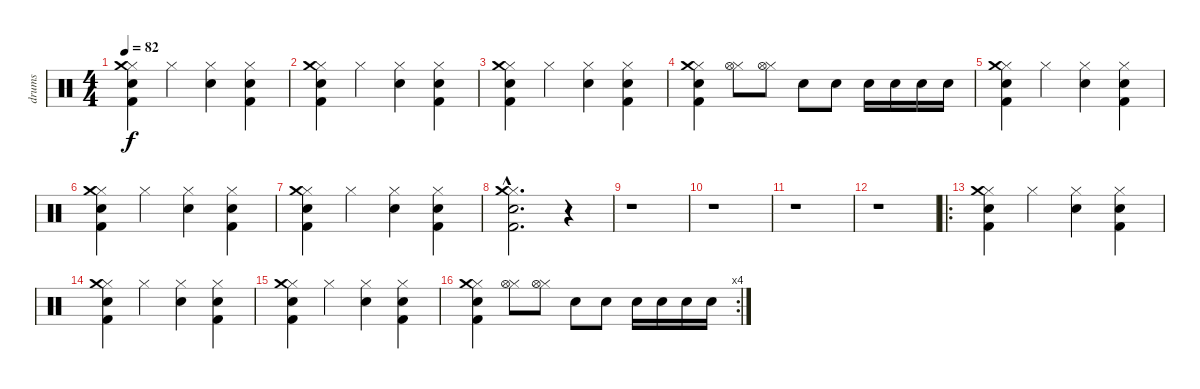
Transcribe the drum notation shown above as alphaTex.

\track ("drums" "drums") {instrument percussion}
\staff {score}
\articulation defaults
\ts (4 4)
\tempo 82
\clef neutral
\ks c
("Hi-Hat (closed)" "Snare (hit) 2" "Kick (hit) 2" "Crash medium (hit)").4{dy f} "Hi-Hat (closed)".4 ("Hi-Hat (closed)" "Hand Clap (hit)").4 ("Hi-Hat (closed)" "Snare (hit) 2" "Kick (hit) 2").4 |
("Hi-Hat (closed)" "Snare (hit) 2" "Kick (hit) 2" "Crash medium (hit)").4 "Hi-Hat (closed)".4 ("Hi-Hat (closed)" "Hand Clap (hit)").4 ("Hi-Hat (closed)" "Snare (hit) 2" "Kick (hit) 2").4 |
("Hi-Hat (closed)" "Snare (hit) 2" "Kick (hit) 2" "Crash medium (hit)").4 "Hi-Hat (closed)".4 ("Hi-Hat (closed)" "Hand Clap (hit)").4 ("Hi-Hat (closed)" "Snare (hit) 2" "Kick (hit) 2").4 |
("Hi-Hat (closed)" "Snare (hit) 2" "Kick (hit) 2" "Crash medium (hit)").4 ("Hi-Hat (closed)" "Hi-Hat (open)").8 ("Hi-Hat (closed)" "Hi-Hat (open)").8 "Electric Snare (hit)".8 "Electric Snare (hit)".8 "Snare (hit) 2".16 "Snare (hit) 2".16 "Snare (hit) 2".16 "Snare (hit) 2".16 |
("Hi-Hat (closed)" "Snare (hit) 2" "Kick (hit) 2" "Crash medium (hit)").4 "Hi-Hat (closed)".4 ("Hi-Hat (closed)" "Hand Clap (hit)").4 ("Hi-Hat (closed)" "Snare (hit) 2" "Kick (hit) 2").4 |
("Hi-Hat (closed)" "Snare (hit) 2" "Kick (hit) 2" "Crash medium (hit)").4 "Hi-Hat (closed)".4 ("Hi-Hat (closed)" "Hand Clap (hit)").4 ("Hi-Hat (closed)" "Snare (hit) 2" "Kick (hit) 2").4 |
("Hi-Hat (closed)" "Snare (hit) 2" "Kick (hit) 2" "Crash medium (hit)").4 "Hi-Hat (closed)".4 ("Hi-Hat (closed)" "Hand Clap (hit)").4 ("Hi-Hat (closed)" "Snare (hit) 2" "Kick (hit) 2").4 |
("Hi-Hat (closed)"{hac} "Snare (hit) 2"{hac} "Kick (hit) 2"{hac} "Crash medium (hit)"{hac}).2{d} r.4 |
r.1 |
r.1 |
r.1 |
r.1 |
\ro
("Hi-Hat (closed)" "Snare (hit) 2" "Kick (hit) 2" "Crash medium (hit)").4 "Hi-Hat (closed)".4 ("Hi-Hat (closed)" "Hand Clap (hit)").4 ("Hi-Hat (closed)" "Snare (hit) 2" "Kick (hit) 2").4 |
("Hi-Hat (closed)" "Snare (hit) 2" "Kick (hit) 2" "Crash medium (hit)").4 "Hi-Hat (closed)".4 ("Hi-Hat (closed)" "Hand Clap (hit)").4 ("Hi-Hat (closed)" "Snare (hit) 2" "Kick (hit) 2").4 |
("Hi-Hat (closed)" "Snare (hit) 2" "Kick (hit) 2" "Crash medium (hit)").4 "Hi-Hat (closed)".4 ("Hi-Hat (closed)" "Hand Clap (hit)").4 ("Hi-Hat (closed)" "Snare (hit) 2" "Kick (hit) 2").4 |
\rc 4
("Hi-Hat (closed)" "Snare (hit) 2" "Kick (hit) 2" "Crash medium (hit)").4 ("Hi-Hat (closed)" "Hi-Hat (open)").8 ("Hi-Hat (closed)" "Hi-Hat (open)").8 "Electric Snare (hit)".8 "Electric Snare (hit)".8 "Snare (hit) 2".16 "Snare (hit) 2".16 "Snare (hit) 2".16 "Snare (hit) 2".16
